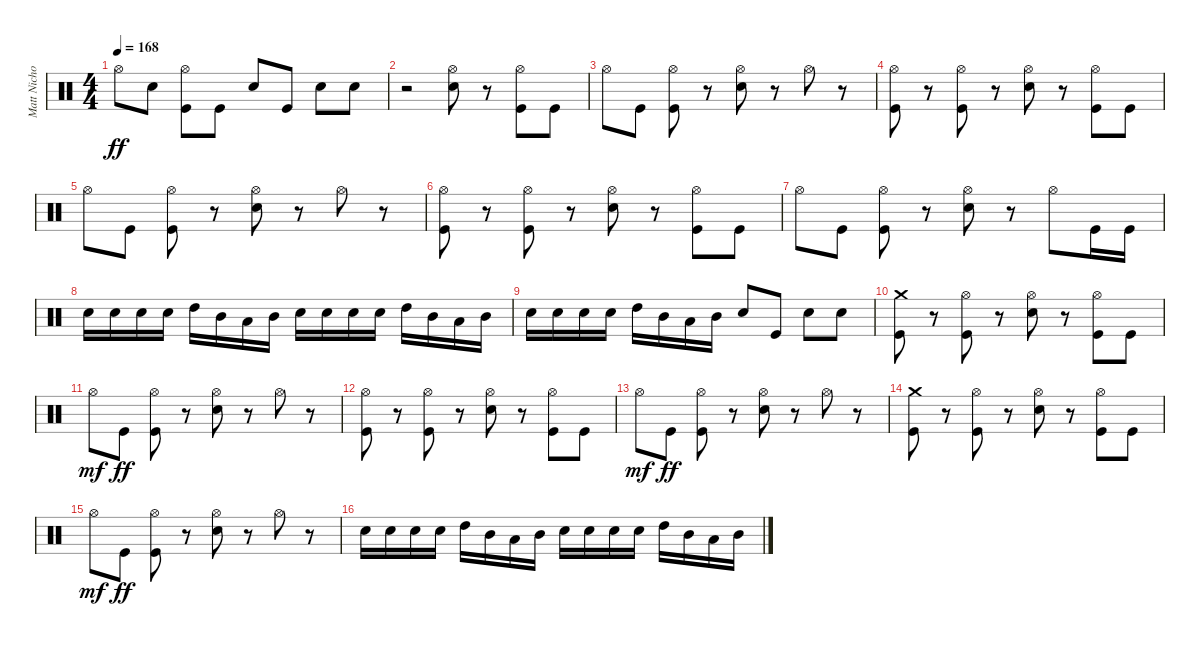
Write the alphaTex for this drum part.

\track ("Matt Nicholls" "Matt Nicho") {instrument percussion}
\staff {score}
\articulation defaults
\ts (4 4)
\tempo 168
\clef neutral
\ks c "Hi-Hat (open)".8{dy ff} "Snare (hit) 2".8
("Kick (hit)" "Hi-Hat (open)").8 "Kick (hit)".8 "Snare (hit) 2".8 "Kick (hit)".8 "Snare (hit) 2".8 "Snare (hit) 2".8 |
r.2 ("Snare (hit) 2" "Hi-Hat (open)").8 r.8 ("Kick (hit)" "Hi-Hat (open)").8 "Kick (hit)".8 |
"Hi-Hat (open)".8 "Kick (hit)".8 ("Kick (hit)" "Hi-Hat (open)").8 r.8 ("Hi-Hat (open)" "Snare (hit) 2").8 r.8 "Hi-Hat (open)".8 r.8 |
("Kick (hit)" "Hi-Hat (open)").8 r.8 ("Kick (hit)" "Hi-Hat (open)").8 r.8 ("Snare (hit) 2" "Hi-Hat (open)").8 r.8 ("Kick (hit)" "Hi-Hat (open)").8 "Kick (hit)".8 |
"Hi-Hat (open)".8 "Kick (hit)".8 ("Kick (hit)" "Hi-Hat (open)").8 r.8 ("Hi-Hat (open)" "Snare (hit) 2").8 r.8 "Hi-Hat (open)".8 r.8 |
("Kick (hit)" "Hi-Hat (open)").8 r.8 ("Kick (hit)" "Hi-Hat (open)").8 r.8 ("Snare (hit) 2" "Hi-Hat (open)").8 r.8 ("Kick (hit)" "Hi-Hat (open)").8 "Kick (hit)".8 |
"Hi-Hat (open)".8 "Kick (hit)".8 ("Kick (hit)" "Hi-Hat (open)").8 r.8 ("Hi-Hat (open)" "Snare (hit) 2").8 r.8 "Hi-Hat (open)".8 "Kick (hit)".16 "Kick (hit)".16 |
"Snare (hit) 2".16 "Snare (hit) 2".16 "Snare (hit) 2".16 "Snare (hit) 2".16 "High Tom (hit)".16 "Mid Tom (hit)".16 "Low Tom (hit)".16 "Mid Tom (hit)".16 "Snare (hit) 2".16 "Snare (hit) 2".16 "Snare (hit) 2".16 "Snare (hit) 2".16 "High Tom (hit)".16 "Mid Tom (hit)".16 "Low Tom (hit)".16 "Mid Tom (hit)".16 |
"Snare (hit) 2".16 "Snare (hit) 2".16 "Snare (hit) 2".16 "Snare (hit) 2".16 "High Tom (hit)".16 "Mid Tom (hit)".16 "Low Tom (hit)".16 "Mid Tom (hit)".16 "Snare (hit) 2".8 "Kick (hit)".8 "Snare (hit) 2".8 "Snare (hit) 2".8 |
("Kick (hit)" "Crash medium (hit)").8 r.8 ("Kick (hit)" "Hi-Hat (open)").8 r.8 ("Snare (hit) 2" "Hi-Hat (open)").8 r.8 ("Kick (hit)" "Hi-Hat (open)").8 "Kick (hit)".8 |
"Hi-Hat (open)".8{dy mf} "Kick (hit)".8{dy ff} ("Kick (hit)" "Hi-Hat (open)").8 r.8 ("Hi-Hat (open)" "Snare (hit) 2").8 r.8 "Hi-Hat (open)".8 r.8 |
("Kick (hit)" "Hi-Hat (open)").8 r.8 ("Kick (hit)" "Hi-Hat (open)").8 r.8 ("Snare (hit) 2" "Hi-Hat (open)").8 r.8 ("Kick (hit)" "Hi-Hat (open)").8 "Kick (hit)".8 |
"Hi-Hat (open)".8{dy mf} "Kick (hit)".8{dy ff} ("Kick (hit)" "Hi-Hat (open)").8 r.8 ("Hi-Hat (open)" "Snare (hit) 2").8 r.8 "Hi-Hat (open)".8 r.8 |
("Kick (hit)" "Crash medium (hit)").8 r.8 ("Kick (hit)" "Hi-Hat (open)").8 r.8 ("Snare (hit) 2" "Hi-Hat (open)").8 r.8 ("Kick (hit)" "Hi-Hat (open)").8 "Kick (hit)".8 |
"Hi-Hat (open)".8{dy mf} "Kick (hit)".8{dy ff} ("Kick (hit)" "Hi-Hat (open)").8 r.8 ("Hi-Hat (open)" "Snare (hit) 2").8 r.8 "Hi-Hat (open)".8 r.8 |
"Snare (hit) 2".16 "Snare (hit) 2".16 "Snare (hit) 2".16 "Snare (hit) 2".16 "High Tom (hit)".16 "Mid Tom (hit)".16 "Low Tom (hit)".16 "Mid Tom (hit)".16 "Snare (hit) 2".16 "Snare (hit) 2".16 "Snare (hit) 2".16 "Snare (hit) 2".16 "High Tom (hit)".16 "Mid Tom (hit)".16 "Low Tom (hit)".16 "Mid Tom (hit)".16
